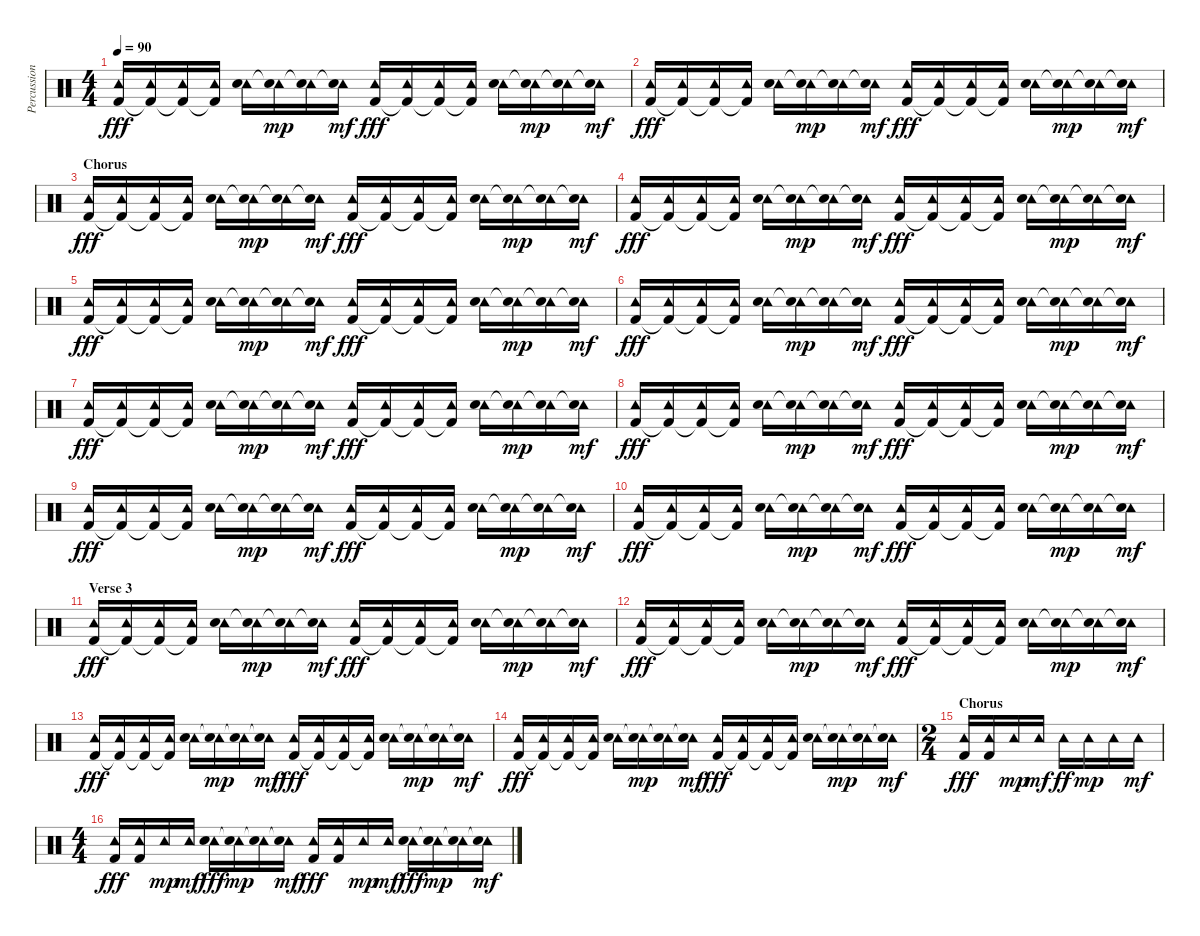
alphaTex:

\track ("Percussion" "Percussion") {instrument percussion}
\staff {score}
\articulation defaults
\ts (4 4)
\tempo 90
\clef neutral
\ks c
("Tambourine (hit)" "Kick (hit) 2").16{dy fff} ("Tambourine (hit)" "Kick (hit) 2"{t}).16 ("Tambourine (hit)" "Kick (hit) 2"{t}).16 ("Tambourine (hit)" "Kick (hit) 2"{t}).16 ("Tambourine (hit)" "Hand Clap (hit)").16 ("Tambourine (hit)" "Snare (hit)"{t}).16{dy mp} ("Tambourine (hit)" "Snare (hit)"{t}).16 ("Tambourine (hit)" "Snare (hit)"{t}).16{dy mf} ("Tambourine (hit)" "Kick (hit) 2").16{dy fff} ("Tambourine (hit)" "Kick (hit) 2"{t}).16 ("Tambourine (hit)" "Kick (hit) 2"{t}).16 ("Tambourine (hit)" "Kick (hit) 2"{t}).16 ("Tambourine (hit)" "Hand Clap (hit)").16 ("Tambourine (hit)" "Snare (hit)"{t}).16{dy mp} ("Tambourine (hit)" "Snare (hit)"{t}).16 ("Tambourine (hit)" "Snare (hit)"{t}).16{dy mf} |
("Tambourine (hit)" "Kick (hit) 2").16{dy fff} ("Tambourine (hit)" "Kick (hit) 2"{t}).16 ("Tambourine (hit)" "Kick (hit) 2"{t}).16 ("Tambourine (hit)" "Kick (hit) 2"{t}).16 ("Tambourine (hit)" "Hand Clap (hit)").16 ("Tambourine (hit)" "Snare (hit)"{t}).16{dy mp} ("Tambourine (hit)" "Snare (hit)"{t}).16 ("Tambourine (hit)" "Snare (hit)"{t}).16{dy mf} ("Tambourine (hit)" "Kick (hit) 2").16{dy fff} ("Tambourine (hit)" "Kick (hit) 2"{t}).16 ("Tambourine (hit)" "Kick (hit) 2"{t}).16 ("Tambourine (hit)" "Kick (hit) 2"{t}).16 ("Tambourine (hit)" "Hand Clap (hit)").16 ("Tambourine (hit)" "Snare (hit)"{t}).16{dy mp} ("Tambourine (hit)" "Snare (hit)"{t}).16 ("Tambourine (hit)" "Snare (hit)"{t}).16{dy mf} |
\section ("" "Chorus")
("Tambourine (hit)" "Kick (hit) 2").16{dy fff} ("Tambourine (hit)" "Kick (hit) 2"{t}).16 ("Tambourine (hit)" "Kick (hit) 2"{t}).16 ("Tambourine (hit)" "Kick (hit) 2"{t}).16 ("Tambourine (hit)" "Hand Clap (hit)").16 ("Tambourine (hit)" "Snare (hit)"{t}).16{dy mp} ("Tambourine (hit)" "Snare (hit)"{t}).16 ("Tambourine (hit)" "Snare (hit)"{t}).16{dy mf} ("Tambourine (hit)" "Kick (hit) 2").16{dy fff} ("Tambourine (hit)" "Kick (hit) 2"{t}).16 ("Tambourine (hit)" "Kick (hit) 2"{t}).16 ("Tambourine (hit)" "Kick (hit) 2"{t}).16 ("Tambourine (hit)" "Hand Clap (hit)").16 ("Tambourine (hit)" "Snare (hit)"{t}).16{dy mp} ("Tambourine (hit)" "Snare (hit)"{t}).16 ("Tambourine (hit)" "Snare (hit)"{t}).16{dy mf} |
("Tambourine (hit)" "Kick (hit) 2").16{dy fff} ("Tambourine (hit)" "Kick (hit) 2"{t}).16 ("Tambourine (hit)" "Kick (hit) 2"{t}).16 ("Tambourine (hit)" "Kick (hit) 2"{t}).16 ("Tambourine (hit)" "Hand Clap (hit)").16 ("Tambourine (hit)" "Snare (hit)"{t}).16{dy mp} ("Tambourine (hit)" "Snare (hit)"{t}).16 ("Tambourine (hit)" "Snare (hit)"{t}).16{dy mf} ("Tambourine (hit)" "Kick (hit) 2").16{dy fff} ("Tambourine (hit)" "Kick (hit) 2"{t}).16 ("Tambourine (hit)" "Kick (hit) 2"{t}).16 ("Tambourine (hit)" "Kick (hit) 2"{t}).16 ("Tambourine (hit)" "Hand Clap (hit)").16 ("Tambourine (hit)" "Snare (hit)"{t}).16{dy mp} ("Tambourine (hit)" "Snare (hit)"{t}).16 ("Tambourine (hit)" "Snare (hit)"{t}).16{dy mf} |
("Tambourine (hit)" "Kick (hit) 2").16{dy fff} ("Tambourine (hit)" "Kick (hit) 2"{t}).16 ("Tambourine (hit)" "Kick (hit) 2"{t}).16 ("Tambourine (hit)" "Kick (hit) 2"{t}).16 ("Tambourine (hit)" "Hand Clap (hit)").16 ("Tambourine (hit)" "Snare (hit)"{t}).16{dy mp} ("Tambourine (hit)" "Snare (hit)"{t}).16 ("Tambourine (hit)" "Snare (hit)"{t}).16{dy mf} ("Tambourine (hit)" "Kick (hit) 2").16{dy fff} ("Tambourine (hit)" "Kick (hit) 2"{t}).16 ("Tambourine (hit)" "Kick (hit) 2"{t}).16 ("Tambourine (hit)" "Kick (hit) 2"{t}).16 ("Tambourine (hit)" "Hand Clap (hit)").16 ("Tambourine (hit)" "Snare (hit)"{t}).16{dy mp} ("Tambourine (hit)" "Snare (hit)"{t}).16 ("Tambourine (hit)" "Snare (hit)"{t}).16{dy mf} |
("Tambourine (hit)" "Kick (hit) 2").16{dy fff} ("Tambourine (hit)" "Kick (hit) 2"{t}).16 ("Tambourine (hit)" "Kick (hit) 2"{t}).16 ("Tambourine (hit)" "Kick (hit) 2"{t}).16 ("Tambourine (hit)" "Hand Clap (hit)").16 ("Tambourine (hit)" "Snare (hit)"{t}).16{dy mp} ("Tambourine (hit)" "Snare (hit)"{t}).16 ("Tambourine (hit)" "Snare (hit)"{t}).16{dy mf} ("Tambourine (hit)" "Kick (hit) 2").16{dy fff} ("Tambourine (hit)" "Kick (hit) 2"{t}).16 ("Tambourine (hit)" "Kick (hit) 2"{t}).16 ("Tambourine (hit)" "Kick (hit) 2"{t}).16 ("Tambourine (hit)" "Hand Clap (hit)").16 ("Tambourine (hit)" "Snare (hit)"{t}).16{dy mp} ("Tambourine (hit)" "Snare (hit)"{t}).16 ("Tambourine (hit)" "Snare (hit)"{t}).16{dy mf} |
("Tambourine (hit)" "Kick (hit) 2").16{dy fff} ("Tambourine (hit)" "Kick (hit) 2"{t}).16 ("Tambourine (hit)" "Kick (hit) 2"{t}).16 ("Tambourine (hit)" "Kick (hit) 2"{t}).16 ("Tambourine (hit)" "Hand Clap (hit)").16 ("Tambourine (hit)" "Snare (hit)"{t}).16{dy mp} ("Tambourine (hit)" "Snare (hit)"{t}).16 ("Tambourine (hit)" "Snare (hit)"{t}).16{dy mf} ("Tambourine (hit)" "Kick (hit) 2").16{dy fff} ("Tambourine (hit)" "Kick (hit) 2"{t}).16 ("Tambourine (hit)" "Kick (hit) 2"{t}).16 ("Tambourine (hit)" "Kick (hit) 2"{t}).16 ("Tambourine (hit)" "Hand Clap (hit)").16 ("Tambourine (hit)" "Snare (hit)"{t}).16{dy mp} ("Tambourine (hit)" "Snare (hit)"{t}).16 ("Tambourine (hit)" "Snare (hit)"{t}).16{dy mf} |
("Tambourine (hit)" "Kick (hit) 2").16{dy fff} ("Tambourine (hit)" "Kick (hit) 2"{t}).16 ("Tambourine (hit)" "Kick (hit) 2"{t}).16 ("Tambourine (hit)" "Kick (hit) 2"{t}).16 ("Tambourine (hit)" "Hand Clap (hit)").16 ("Tambourine (hit)" "Snare (hit)"{t}).16{dy mp} ("Tambourine (hit)" "Snare (hit)"{t}).16 ("Tambourine (hit)" "Snare (hit)"{t}).16{dy mf} ("Tambourine (hit)" "Kick (hit) 2").16{dy fff} ("Tambourine (hit)" "Kick (hit) 2"{t}).16 ("Tambourine (hit)" "Kick (hit) 2"{t}).16 ("Tambourine (hit)" "Kick (hit) 2"{t}).16 ("Tambourine (hit)" "Hand Clap (hit)").16 ("Tambourine (hit)" "Snare (hit)"{t}).16{dy mp} ("Tambourine (hit)" "Snare (hit)"{t}).16 ("Tambourine (hit)" "Snare (hit)"{t}).16{dy mf} |
("Tambourine (hit)" "Kick (hit) 2").16{dy fff} ("Tambourine (hit)" "Kick (hit) 2"{t}).16 ("Tambourine (hit)" "Kick (hit) 2"{t}).16 ("Tambourine (hit)" "Kick (hit) 2"{t}).16 ("Tambourine (hit)" "Hand Clap (hit)").16 ("Tambourine (hit)" "Snare (hit)"{t}).16{dy mp} ("Tambourine (hit)" "Snare (hit)"{t}).16 ("Tambourine (hit)" "Snare (hit)"{t}).16{dy mf} ("Tambourine (hit)" "Kick (hit) 2").16{dy fff} ("Tambourine (hit)" "Kick (hit) 2"{t}).16 ("Tambourine (hit)" "Kick (hit) 2"{t}).16 ("Tambourine (hit)" "Kick (hit) 2"{t}).16 ("Tambourine (hit)" "Hand Clap (hit)").16 ("Tambourine (hit)" "Snare (hit)"{t}).16{dy mp} ("Tambourine (hit)" "Snare (hit)"{t}).16 ("Tambourine (hit)" "Snare (hit)"{t}).16{dy mf} |
("Tambourine (hit)" "Kick (hit) 2").16{dy fff} ("Tambourine (hit)" "Kick (hit) 2"{t}).16 ("Tambourine (hit)" "Kick (hit) 2"{t}).16 ("Tambourine (hit)" "Kick (hit) 2"{t}).16 ("Tambourine (hit)" "Hand Clap (hit)").16 ("Tambourine (hit)" "Snare (hit)"{t}).16{dy mp} ("Tambourine (hit)" "Snare (hit)"{t}).16 ("Tambourine (hit)" "Snare (hit)"{t}).16{dy mf} ("Tambourine (hit)" "Kick (hit) 2").16{dy fff} ("Tambourine (hit)" "Kick (hit) 2"{t}).16 ("Tambourine (hit)" "Kick (hit) 2"{t}).16 ("Tambourine (hit)" "Kick (hit) 2"{t}).16 ("Tambourine (hit)" "Hand Clap (hit)").16 ("Tambourine (hit)" "Snare (hit)"{t}).16{dy mp} ("Tambourine (hit)" "Snare (hit)"{t}).16 ("Tambourine (hit)" "Snare (hit)"{t}).16{dy mf} |
\section ("" "Verse 3")
("Tambourine (hit)" "Kick (hit) 2").16{dy fff} ("Tambourine (hit)" "Kick (hit) 2"{t}).16 ("Tambourine (hit)" "Kick (hit) 2"{t}).16 ("Tambourine (hit)" "Kick (hit) 2"{t}).16 ("Tambourine (hit)" "Hand Clap (hit)").16 ("Tambourine (hit)" "Snare (hit)"{t}).16{dy mp} ("Tambourine (hit)" "Snare (hit)"{t}).16 ("Tambourine (hit)" "Snare (hit)"{t}).16{dy mf} ("Tambourine (hit)" "Kick (hit) 2").16{dy fff} ("Tambourine (hit)" "Kick (hit) 2"{t}).16 ("Tambourine (hit)" "Kick (hit) 2"{t}).16 ("Tambourine (hit)" "Kick (hit) 2"{t}).16 ("Tambourine (hit)" "Hand Clap (hit)").16 ("Tambourine (hit)" "Snare (hit)"{t}).16{dy mp} ("Tambourine (hit)" "Snare (hit)"{t}).16 ("Tambourine (hit)" "Snare (hit)"{t}).16{dy mf} |
("Tambourine (hit)" "Kick (hit) 2").16{dy fff} ("Tambourine (hit)" "Kick (hit) 2"{t}).16 ("Tambourine (hit)" "Kick (hit) 2"{t}).16 ("Tambourine (hit)" "Kick (hit) 2"{t}).16 ("Tambourine (hit)" "Hand Clap (hit)").16 ("Tambourine (hit)" "Snare (hit)"{t}).16{dy mp} ("Tambourine (hit)" "Snare (hit)"{t}).16 ("Tambourine (hit)" "Snare (hit)"{t}).16{dy mf} ("Tambourine (hit)" "Kick (hit) 2").16{dy fff} ("Tambourine (hit)" "Kick (hit) 2"{t}).16 ("Tambourine (hit)" "Kick (hit) 2"{t}).16 ("Tambourine (hit)" "Kick (hit) 2"{t}).16 ("Tambourine (hit)" "Hand Clap (hit)").16 ("Tambourine (hit)" "Snare (hit)"{t}).16{dy mp} ("Tambourine (hit)" "Snare (hit)"{t}).16 ("Tambourine (hit)" "Snare (hit)"{t}).16{dy mf} |
("Tambourine (hit)" "Kick (hit) 2").16{dy fff} ("Tambourine (hit)" "Kick (hit) 2"{t}).16 ("Tambourine (hit)" "Kick (hit) 2"{t}).16 ("Tambourine (hit)" "Kick (hit) 2"{t}).16 ("Tambourine (hit)" "Hand Clap (hit)").16 ("Tambourine (hit)" "Snare (hit)"{t}).16{dy mp} ("Tambourine (hit)" "Snare (hit)"{t}).16 ("Tambourine (hit)" "Snare (hit)"{t}).16{dy mf} ("Tambourine (hit)" "Kick (hit) 2").16{dy fff} ("Tambourine (hit)" "Kick (hit) 2"{t}).16 ("Tambourine (hit)" "Kick (hit) 2"{t}).16 ("Tambourine (hit)" "Kick (hit) 2"{t}).16 ("Tambourine (hit)" "Hand Clap (hit)").16 ("Tambourine (hit)" "Snare (hit)"{t}).16{dy mp} ("Tambourine (hit)" "Snare (hit)"{t}).16 ("Tambourine (hit)" "Snare (hit)"{t}).16{dy mf} |
("Tambourine (hit)" "Kick (hit) 2").16{dy fff} ("Tambourine (hit)" "Kick (hit) 2"{t}).16 ("Tambourine (hit)" "Kick (hit) 2"{t}).16 ("Tambourine (hit)" "Kick (hit) 2"{t}).16 ("Tambourine (hit)" "Hand Clap (hit)").16 ("Tambourine (hit)" "Snare (hit)"{t}).16{dy mp} ("Tambourine (hit)" "Snare (hit)"{t}).16 ("Tambourine (hit)" "Snare (hit)"{t}).16{dy mf} ("Tambourine (hit)" "Kick (hit) 2").16{dy fff} ("Tambourine (hit)" "Kick (hit) 2"{t}).16 ("Tambourine (hit)" "Kick (hit) 2"{t}).16 ("Tambourine (hit)" "Kick (hit) 2"{t}).16 ("Tambourine (hit)" "Hand Clap (hit)").16 ("Tambourine (hit)" "Snare (hit)"{t}).16{dy mp} ("Tambourine (hit)" "Snare (hit)"{t}).16 ("Tambourine (hit)" "Snare (hit)"{t}).16{dy mf} |
\ts (2 4)
\section ("" "Chorus")
("Tambourine (hit)" "Kick (hit) 2").16{dy fff} ("Tambourine (hit)" "Kick (hit) 2").16 "Tambourine (hit)".16{dy mp} "Tambourine (hit)".16{dy mf} "Tambourine (hit)".16{dy ff} "Tambourine (hit)".16{dy mp} "Tambourine (hit)".16 "Tambourine (hit)".16{dy mf} |
\ts (4 4)
("Tambourine (hit)" "Kick (hit) 2").16{dy fff} ("Tambourine (hit)" "Kick (hit) 2").16 "Tambourine (hit)".16{dy mp} "Tambourine (hit)".16{dy mf} ("Tambourine (hit)" "Hand Clap (hit)").16{dy fff} ("Tambourine (hit)" "Snare (hit)"{t}).16{dy mp} ("Tambourine (hit)" "Snare (hit)"{t}).16 ("Tambourine (hit)" "Snare (hit)"{t}).16{dy mf} ("Tambourine (hit)" "Kick (hit) 2").16{dy fff} ("Tambourine (hit)" "Kick (hit) 2").16 "Tambourine (hit)".16{dy mp} "Tambourine (hit)".16{dy mf} ("Tambourine (hit)" "Hand Clap (hit)").16{dy fff} ("Tambourine (hit)" "Snare (hit)"{t}).16{dy mp} ("Tambourine (hit)" "Snare (hit)"{t}).16 ("Tambourine (hit)" "Snare (hit)"{t}).16{dy mf}
